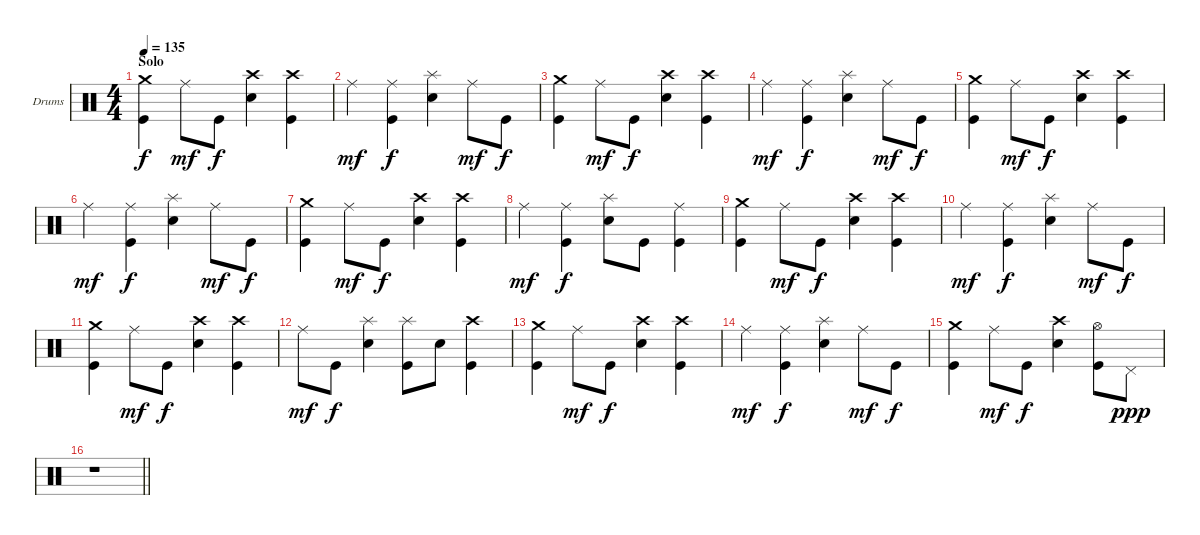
\bracketExtendMode groupsimilarinstruments
\firstSystemTrackNameOrientation horizontal
\otherSystemsTrackNameOrientation horizontal
\track ("Drumkit" "Drums") {instrument percussion}
\staff {score}
\articulation defaults
\ts (4 4)
\section ("" "Solo")
\tempo 135
\clef neutral
\ks c
("Kick (hit)" "Crash medium (hit)").4{dy f} "Ride (middle)".8{dy mf} "Kick (hit)".8{dy f} ("Snare (hit) 2" "Crash high (hit)").4 ("Kick (hit)" "Crash high (hit)").4 |
"Ride (middle)".4{dy mf} ("Kick (hit)" "Ride (middle)").4{dy f} ("Snare (hit) 2" "Splash (hit)").4 "Ride (middle)".8{dy mf} "Kick (hit)".8{dy f} |
("Kick (hit)" "Crash medium (hit)").4 "Ride (middle)".8{dy mf} "Kick (hit)".8{dy f} ("Snare (hit) 2" "Crash high (hit)").4 ("Kick (hit)" "Crash high (hit)").4 |
"Ride (middle)".4{dy mf} ("Kick (hit)" "Ride (middle)").4{dy f} ("Snare (hit) 2" "Splash (hit)").4 "Ride (middle)".8{dy mf} "Kick (hit)".8{dy f} |
("Kick (hit)" "Crash medium (hit)").4 "Ride (middle)".8{dy mf} "Kick (hit)".8{dy f} ("Snare (hit) 2" "Crash high (hit)").4 ("Kick (hit)" "Crash high (hit)").4 |
"Ride (middle)".4{dy mf} ("Kick (hit)" "Ride (middle)").4{dy f} ("Snare (hit) 2" "Splash (hit)").4 "Ride (middle)".8{dy mf} "Kick (hit)".8{dy f} |
("Kick (hit)" "Crash medium (hit)").4 "Ride (middle)".8{dy mf} "Kick (hit)".8{dy f} ("Snare (hit) 2" "Crash high (hit)").4 ("Kick (hit)" "Crash high (hit)").4 |
"Ride (middle)".4{dy mf} ("Kick (hit)" "Ride (middle)").4{dy f} ("Snare (hit) 2" "Splash (hit)").8 "Kick (hit)".8 ("Kick (hit)" "Ride (middle)").4 |
("Kick (hit)" "Crash medium (hit)").4 "Ride (middle)".8{dy mf} "Kick (hit)".8{dy f} ("Snare (hit) 2" "Crash high (hit)").4 ("Kick (hit)" "Crash high (hit)").4 |
"Ride (middle)".4{dy mf} ("Kick (hit)" "Ride (middle)").4{dy f} ("Snare (hit) 2" "Splash (hit)").4 "Ride (middle)".8{dy mf} "Kick (hit)".8{dy f} |
("Kick (hit)" "Crash medium (hit)").4 "Ride (middle)".8{dy mf} "Kick (hit)".8{dy f} ("Snare (hit) 2" "Crash high (hit)").4 ("Kick (hit)" "Crash high (hit)").4 |
"Ride (middle)".8{dy mf} "Kick (hit)".8{dy f} ("Snare (hit) 2" "Splash (hit)").4 ("Kick (hit)" "Splash (hit)").8 "Snare (hit) 2".8 ("Kick (hit)" "Crash high (hit)").4 |
("Kick (hit)" "Crash medium (hit)").4 "Ride (middle)".8{dy mf} "Kick (hit)".8{dy f} ("Snare (hit) 2" "Crash high (hit)").4 ("Kick (hit)" "Crash high (hit)").4 |
"Ride (middle)".4{dy mf} ("Kick (hit)" "Ride (middle)").4{dy f} ("Snare (hit) 2" "Splash (hit)").4 "Ride (middle)".8{dy mf} "Kick (hit)".8{dy f} |
("Kick (hit)" "Crash medium (hit)").4 "Ride (middle)".8{dy mf} "Kick (hit)".8{dy f} ("Snare (hit) 2" "Crash high (hit)").4 ("Kick (hit)" "Hi-Hat (open)").8 "Pedal Hi-Hat (hit)".8{dy ppp} |
\barLineRight lightlight
r.1
